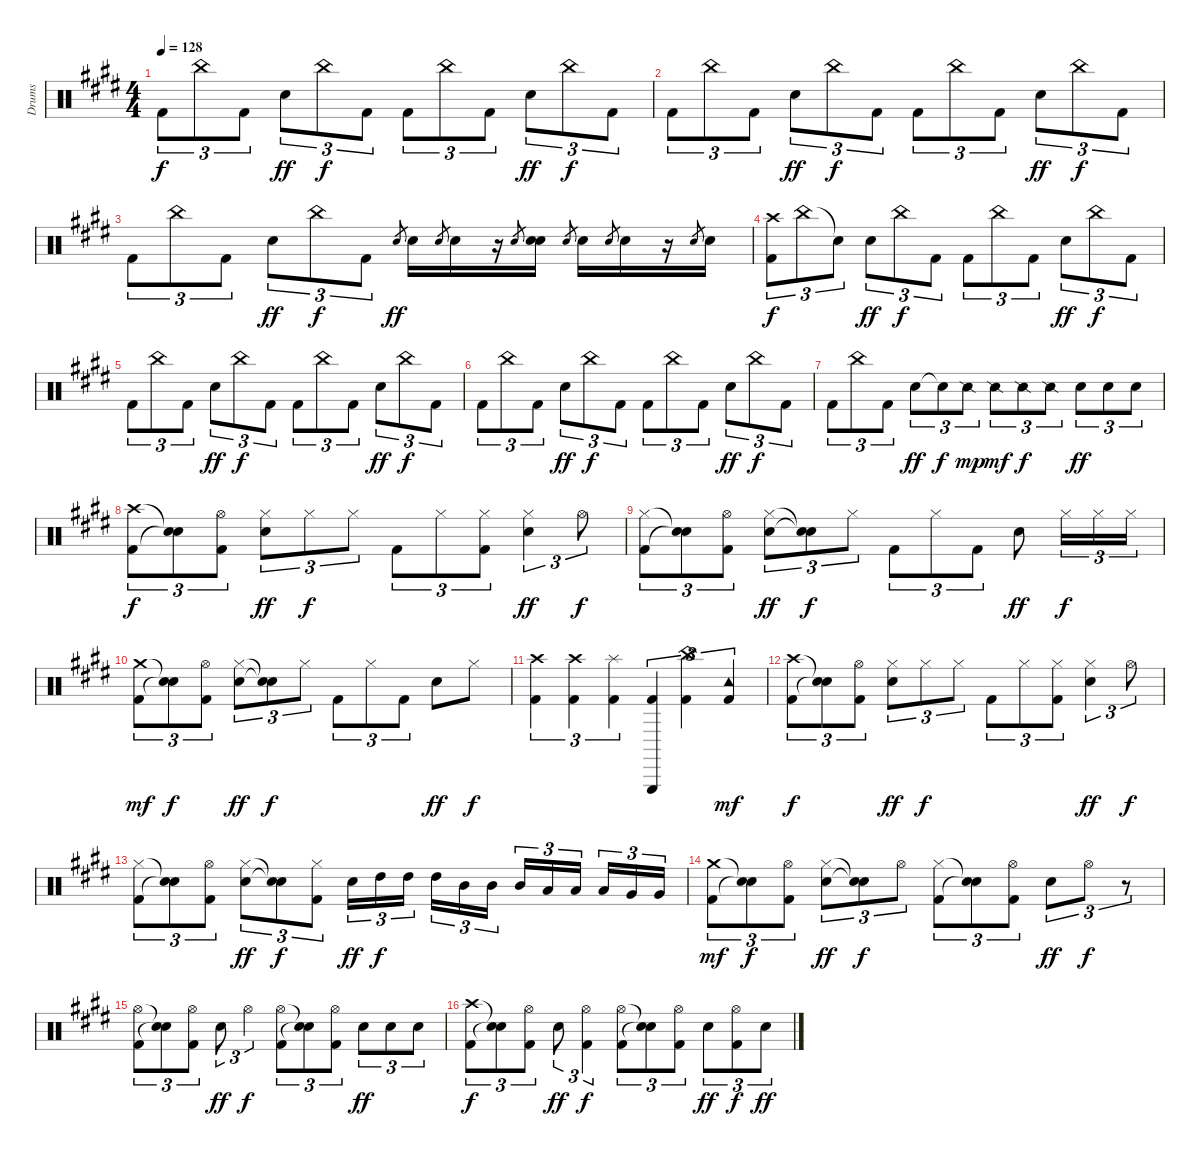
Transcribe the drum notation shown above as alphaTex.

\track ("Drums" "Drums") {instrument percussion}
\staff {score}
\articulation defaults
\ts (4 4)
\tempo 128
\clef neutral
\ks e "Kick (hit) 2".8{tu (3 2) dy f} "China (hit)".8{tu (3 2)} "Kick (hit) 2".8{tu (3 2)} "Electric Snare (hit)".8{tu (3 2) dy ff} "China (hit)".8{tu (3 2) dy f} "Kick (hit) 2".8{tu (3 2)} "Kick (hit) 2".8{tu (3 2)} "China (hit)".8{tu (3 2)} "Kick (hit) 2".8{tu (3 2)} "Electric Snare (hit)".8{tu (3 2) dy ff} "China (hit)".8{tu (3 2) dy f} "Kick (hit) 2".8{tu (3 2)}
|
"Kick (hit) 2".8{tu (3 2)} "China (hit)".8{tu (3 2)} "Kick (hit) 2".8{tu (3 2)} "Electric Snare (hit)".8{tu (3 2) dy ff} "China (hit)".8{tu (3 2) dy f} "Kick (hit) 2".8{tu (3 2)} "Kick (hit) 2".8{tu (3 2)} "China (hit)".8{tu (3 2)} "Kick (hit) 2".8{tu (3 2)} "Electric Snare (hit)".8{tu (3 2) dy ff} "China (hit)".8{tu (3 2) dy f} "Kick (hit) 2".8{tu (3 2)} |
"Kick (hit) 2".8{tu (3 2)} "China (hit)".8{tu (3 2)} "Kick (hit) 2".8{tu (3 2)} "Electric Snare (hit)".8{tu (3 2) dy ff} "China (hit)".8{tu (3 2) dy f} "Kick (hit) 2".8{tu (3 2)} "Electric Snare (hit)".8{gr dy ff} "Electric Snare (hit)".16 "Electric Snare (hit)".8{gr} "Electric Snare (hit)".16 r.16 "Electric Snare (hit)".8{gr} ("Electric Snare (hit)" "Electric Snare (hit)").16 "Electric Snare (hit)".8{gr} "Electric Snare (hit)".16 "Electric Snare (hit)".8{gr} "Electric Snare (hit)".16 r.16 "Electric Snare (hit)".8{gr} "Electric Snare (hit)".16 |
("Kick (hit) 2" "Crash high (hit)").8{tu (3 2) dy f} "China (hit)".8{tu (3 2)} "Snare (hit)"{t}.8{tu (3 2)} "Electric Snare (hit)".8{tu (3 2) dy ff} "China (hit)".8{tu (3 2) dy f} "Kick (hit) 2".8{tu (3 2)} "Kick (hit) 2".8{tu (3 2)} "China (hit)".8{tu (3 2)} "Kick (hit) 2".8{tu (3 2)} "Electric Snare (hit)".8{tu (3 2) dy ff} "China (hit)".8{tu (3 2) dy f} "Kick (hit) 2".8{tu (3 2)} |
"Kick (hit) 2".8{tu (3 2)} "China (hit)".8{tu (3 2)} "Kick (hit) 2".8{tu (3 2)} "Electric Snare (hit)".8{tu (3 2) dy ff} "China (hit)".8{tu (3 2) dy f} "Kick (hit) 2".8{tu (3 2)} "Kick (hit) 2".8{tu (3 2)} "China (hit)".8{tu (3 2)} "Kick (hit) 2".8{tu (3 2)} "Electric Snare (hit)".8{tu (3 2) dy ff} "China (hit)".8{tu (3 2) dy f} "Kick (hit) 2".8{tu (3 2)} |
"Kick (hit) 2".8{tu (3 2)} "China (hit)".8{tu (3 2)} "Kick (hit) 2".8{tu (3 2)} "Electric Snare (hit)".8{tu (3 2) dy ff} "China (hit)".8{tu (3 2) dy f} "Kick (hit) 2".8{tu (3 2)} "Kick (hit) 2".8{tu (3 2)} "China (hit)".8{tu (3 2)} "Kick (hit) 2".8{tu (3 2)} "Electric Snare (hit)".8{tu (3 2) dy ff} "China (hit)".8{tu (3 2) dy f} "Kick (hit) 2".8{tu (3 2)} |
"Kick (hit) 2".8{tu (3 2)} "China (hit)".8{tu (3 2)} "Kick (hit) 2".8{tu (3 2)} "Electric Snare (hit)".8{tu (3 2) dy ff} "Snare (hit)"{t}.8{tu (3 2) dy f} "Snare (side stick) 2".8{tu (3 2) dy mp} "Snare (side stick) 2".8{tu (3 2) dy mf} "Snare (side stick) 2".8{tu (3 2) dy f} "Snare (side stick) 2".8{tu (3 2)} "Electric Snare (hit)".8{tu (3 2) dy ff} "Electric Snare (hit)".8{tu (3 2)} "Electric Snare (hit)".8{tu (3 2)} |
("Kick (hit) 2" "Crash high (hit)").8{tu (3 2) dy f} ("Snare (hit)"{t} "Snare (hit)"{t}).8{tu (3 2)} ("Kick (hit) 2" "Hi-Hat (open)").8{tu (3 2)} ("Electric Snare (hit)" "Hi-Hat (closed)").8{tu (3 2) dy ff} "Hi-Hat (closed)".8{tu (3 2) dy f} "Hi-Hat (closed)".8{tu (3 2)} "Kick (hit) 2".8{tu (3 2)} "Hi-Hat (closed)".8{tu (3 2)} ("Kick (hit) 2" "Hi-Hat (closed)").8{tu (3 2)} ("Electric Snare (hit)" "Hi-Hat (closed)").4{tu (3 2) dy ff} "Hi-Hat (open)".8{tu (3 2) dy f} |
("Kick (hit) 2" "Hi-Hat (closed)").8{tu (3 2)} ("Snare (hit)"{t} "Snare (hit)"{t}).8{tu (3 2)} ("Kick (hit) 2" "Hi-Hat (open)").8{tu (3 2)} ("Electric Snare (hit)" "Hi-Hat (closed)").8{tu (3 2) dy ff} ("Snare (hit)"{t} "Snare (hit)"{t}).8{tu (3 2) dy f} "Hi-Hat (closed)".8{tu (3 2)} "Kick (hit) 2".8{tu (3 2)} "Hi-Hat (closed)".8{tu (3 2)} "Kick (hit) 2".8{tu (3 2)} "Electric Snare (hit)".8{dy ff} "Hi-Hat (closed)".16{tu (3 2) dy f} "Hi-Hat (closed)".16{tu (3 2)} "Hi-Hat (closed)".16{tu (3 2)} |
("Kick (hit) 2" "Crash medium (hit)").8{tu (3 2) dy mf} ("Snare (hit)"{t} "Snare (hit)"{t}).8{tu (3 2) dy f} ("Kick (hit) 2" "Hi-Hat (open)").8{tu (3 2)} ("Electric Snare (hit)" "Hi-Hat (closed)").8{tu (3 2) dy ff} ("Snare (hit)"{t} "Snare (hit)"{t}).8{tu (3 2) dy f} "Hi-Hat (closed)".8{tu (3 2)} "Kick (hit) 2".8{tu (3 2)} "Hi-Hat (closed)".8{tu (3 2)} "Kick (hit) 2".8{tu (3 2)} "Electric Snare (hit)".8{dy ff} "Hi-Hat (closed)".8{dy f} |
("Kick (hit) 2" "Crash high (hit)").4{tu (3 2)} ("Kick (hit) 2" "Crash high (hit)").4{tu (3 2)} ("Kick (hit) 2" "Splash (hit)").4{tu (3 2)} ("Kick (hit) 2" "Triangle (hit)").4{tu (3 2)} ("Kick (hit) 2" "China (hit)").4{tu (3 2)} ("Kick (hit) 2" "Tambourine (hit)").4{tu (3 2) dy mf} |
("Kick (hit) 2" "Crash high (hit)").8{tu (3 2) dy f} ("Snare (hit)"{t} "Snare (hit)"{t}).8{tu (3 2)} ("Kick (hit) 2" "Hi-Hat (open)").8{tu (3 2)} ("Electric Snare (hit)" "Hi-Hat (closed)").8{tu (3 2) dy ff} "Hi-Hat (closed)".8{tu (3 2) dy f} "Hi-Hat (closed)".8{tu (3 2)} "Kick (hit) 2".8{tu (3 2)} "Hi-Hat (closed)".8{tu (3 2)} ("Kick (hit) 2" "Hi-Hat (closed)").8{tu (3 2)} ("Electric Snare (hit)" "Hi-Hat (closed)").4{tu (3 2) dy ff} "Hi-Hat (open)".8{tu (3 2) dy f} |
("Kick (hit) 2" "Hi-Hat (closed)").8{tu (3 2)} ("Snare (hit)"{t} "Snare (hit)"{t}).8{tu (3 2)} ("Kick (hit) 2" "Hi-Hat (open)").8{tu (3 2)} ("Electric Snare (hit)" "Hi-Hat (closed)").8{tu (3 2) dy ff} ("Snare (hit)"{t} "Snare (hit)"{t}).8{tu (3 2) dy f} ("Kick (hit) 2" "Hi-Hat (closed)").8{tu (3 2)} "Electric Snare (hit)".16{tu (3 2) dy ff} "High Tom (hit)".16{tu (3 2) dy f} "High Tom (hit)".16{tu (3 2)} "High Tom (hit)".16{tu (3 2)} "Mid Tom (hit)".16{tu (3 2)} "Mid Tom (hit)".16{tu (3 2)} "Mid Tom (hit)".16{tu (3 2)} "Low Tom (hit)".16{tu (3 2)} "Low Tom (hit)".16{tu (3 2)} "Low Tom (hit)".16{tu (3 2)} "Very Low Tom (hit)".16{tu (3 2)} "Very Low Tom (hit)".16{tu (3 2)} |
("Kick (hit) 2" "Crash medium (hit)").8{tu (3 2) dy mf} ("Snare (hit)"{t} "Snare (hit)"{t}).8{tu (3 2) dy f} ("Kick (hit) 2" "Hi-Hat (open)").8{tu (3 2)} ("Electric Snare (hit)" "Hi-Hat (closed)").8{tu (3 2) dy ff} ("Snare (hit)"{t} "Snare (hit)"{t}).8{tu (3 2) dy f} "Hi-Hat (open)".8{tu (3 2)} ("Kick (hit) 2" "Hi-Hat (closed)").8{tu (3 2)} ("Snare (hit)"{t} "Snare (hit)"{t}).8{tu (3 2)} ("Kick (hit) 2" "Hi-Hat (open)").8{tu (3 2)} "Electric Snare (hit)".8{tu (3 2) dy ff} "Hi-Hat (open)".8{tu (3 2) dy f} r.8{tu (3 2)} |
("Kick (hit) 2" "Hi-Hat (open)").8{tu (3 2)} ("Snare (hit)"{t} "Snare (hit)"{t}).8{tu (3 2)} ("Kick (hit) 2" "Hi-Hat (open)").8{tu (3 2)} "Electric Snare (hit)".8{tu (3 2) dy ff} "Hi-Hat (open)".4{tu (3 2) dy f} ("Kick (hit) 2" "Hi-Hat (open)").8{tu (3 2)} ("Snare (hit)"{t} "Snare (hit)"{t}).8{tu (3 2)} ("Kick (hit) 2" "Hi-Hat (open)").8{tu (3 2)} "Electric Snare (hit)".8{tu (3 2) dy ff} "Electric Snare (hit)".8{tu (3 2)} "Electric Snare (hit)".8{tu (3 2)} |
("Kick (hit) 2" "Crash high (hit)").8{tu (3 2) dy f} ("Snare (hit)"{t} "Snare (hit)"{t}).8{tu (3 2)} ("Kick (hit) 2" "Hi-Hat (open)").8{tu (3 2)} "Electric Snare (hit)".8{tu (3 2) dy ff} ("Kick (hit) 2" "Hi-Hat (open)").4{tu (3 2) dy f} ("Kick (hit) 2" "Hi-Hat (open)").8{tu (3 2)} ("Snare (hit)"{t} "Snare (hit)"{t}).8{tu (3 2)} ("Kick (hit) 2" "Hi-Hat (open)").8{tu (3 2)} "Electric Snare (hit)".8{tu (3 2) dy ff} ("Kick (hit) 2" "Hi-Hat (open)").8{tu (3 2) dy f} "Electric Snare (hit)".8{tu (3 2) dy ff}
